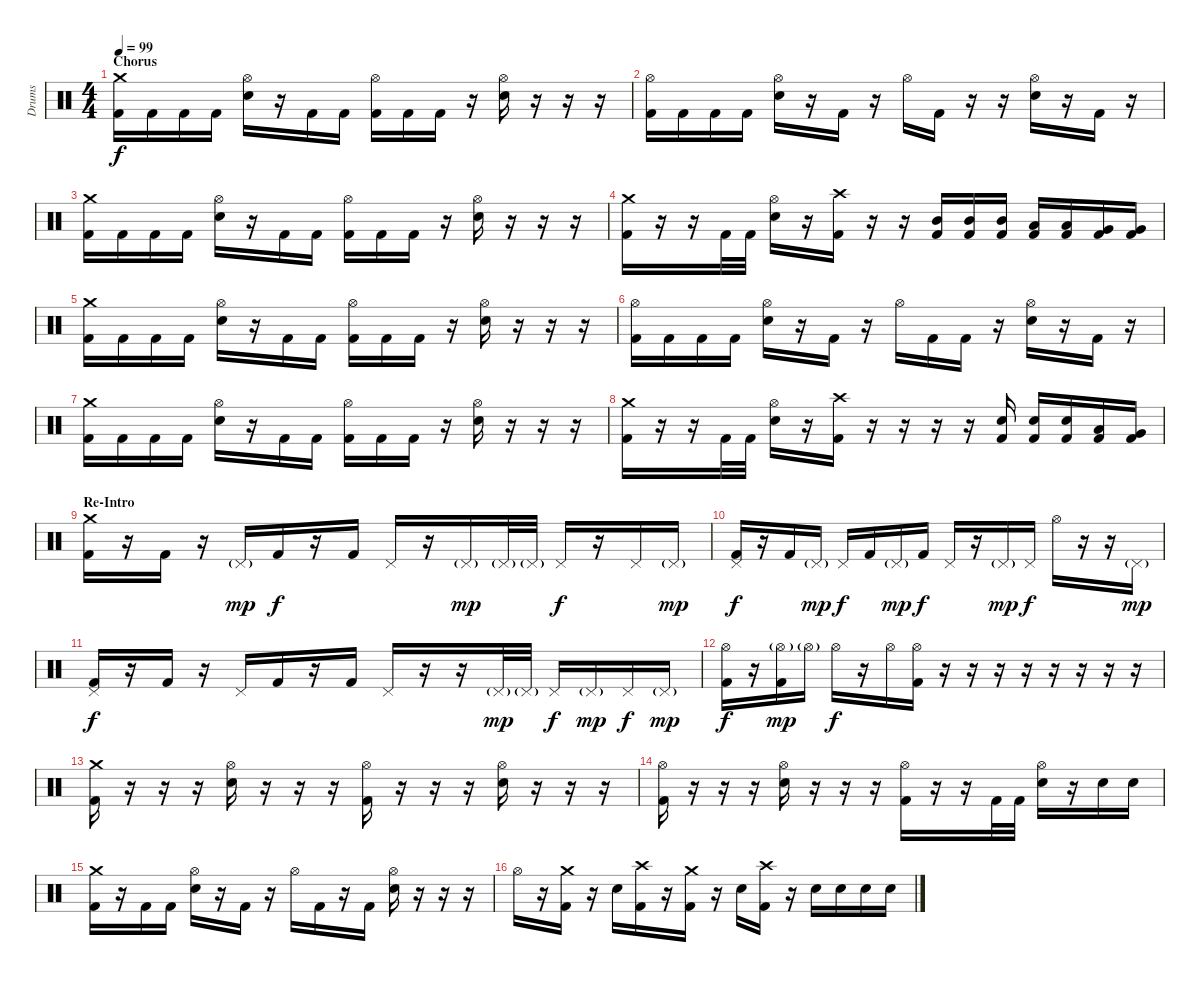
\track ("Drums" "Drums") {instrument percussion}
\staff {score}
\articulation defaults
\ts (4 4)
\section ("" "Chorus")
\tempo 99
\clef neutral
\ks c
("Crash medium (hit)" "Kick (hit) 2").16{dy f} "Kick (hit) 2".16 "Kick (hit) 2".16 "Kick (hit) 2".16 ("Hi-Hat (open)" "Electric Snare (hit)").16 r.16 "Kick (hit) 2".16 "Kick (hit) 2".16 ("Hi-Hat (open)" "Kick (hit) 2").16 "Kick (hit) 2".16 "Kick (hit) 2".16 r.16 ("Hi-Hat (open)" "Electric Snare (hit)").16 r.16 r.16 r.16 |
("Hi-Hat (open)" "Kick (hit) 2").16 "Kick (hit) 2".16 "Kick (hit) 2".16 "Kick (hit) 2".16 ("Hi-Hat (open)" "Electric Snare (hit)").16 r.16 "Kick (hit) 2".16 r.16 "Hi-Hat (open)".16 "Kick (hit) 2".16 r.16 r.16 ("Hi-Hat (open)" "Electric Snare (hit)").16 r.16 "Kick (hit) 2".16 r.16 |
("Crash medium (hit)" "Kick (hit) 2").16 "Kick (hit) 2".16 "Kick (hit) 2".16 "Kick (hit) 2".16 ("Hi-Hat (open)" "Electric Snare (hit)").16 r.16 "Kick (hit) 2".16 "Kick (hit) 2".16 ("Hi-Hat (open)" "Kick (hit) 2").16 "Kick (hit) 2".16 "Kick (hit) 2".16 r.16 ("Hi-Hat (open)" "Electric Snare (hit)").16 r.16 r.16 r.16 |
("Crash medium (hit)" "Kick (hit) 2").16 r.16 r.16 "Kick (hit) 2".32 "Kick (hit) 2".32 ("Hi-Hat (open)" "Electric Snare (hit)").16 r.16 ("Crash high (hit)" "Kick (hit) 2").16 r.16 r.16 ("Mid Tom (hit)" "Kick (hit) 2").16 ("Mid Tom (hit)" "Kick (hit) 2").16 ("Mid Tom (hit)" "Kick (hit) 2").16 ("Low Tom (hit)" "Kick (hit) 2").16 ("Low Tom (hit)" "Kick (hit) 2").16 ("Very Low Tom (hit)" "Kick (hit) 2").16 ("Very Low Tom (hit)" "Kick (hit) 2").16 |
("Crash medium (hit)" "Kick (hit) 2").16 "Kick (hit) 2".16 "Kick (hit) 2".16 "Kick (hit) 2".16 ("Hi-Hat (open)" "Electric Snare (hit)").16 r.16 "Kick (hit) 2".16 "Kick (hit) 2".16 ("Hi-Hat (open)" "Kick (hit) 2").16 "Kick (hit) 2".16 "Kick (hit) 2".16 r.16 ("Hi-Hat (open)" "Electric Snare (hit)").16 r.16 r.16 r.16 |
("Hi-Hat (open)" "Kick (hit) 2").16 "Kick (hit) 2".16 "Kick (hit) 2".16 "Kick (hit) 2".16 ("Hi-Hat (open)" "Electric Snare (hit)").16 r.16 "Kick (hit) 2".16 r.16 "Hi-Hat (open)".16 "Kick (hit) 2".16 "Kick (hit) 2".16 r.16 ("Hi-Hat (open)" "Electric Snare (hit)").16 r.16 "Kick (hit) 2".16 r.16 |
("Crash medium (hit)" "Kick (hit) 2").16 "Kick (hit) 2".16 "Kick (hit) 2".16 "Kick (hit) 2".16 ("Hi-Hat (open)" "Electric Snare (hit)").16 r.16 "Kick (hit) 2".16 "Kick (hit) 2".16 ("Hi-Hat (open)" "Kick (hit) 2").16 "Kick (hit) 2".16 "Kick (hit) 2".16 r.16 ("Hi-Hat (open)" "Electric Snare (hit)").16 r.16 r.16 r.16 |
("Crash medium (hit)" "Kick (hit) 2").16 r.16 r.16 "Kick (hit) 2".32 "Kick (hit) 2".32 ("Hi-Hat (open)" "Electric Snare (hit)").16 r.16 ("Crash high (hit)" "Kick (hit) 2").16 r.16 r.16 r.16 r.16 ("Electric Snare (hit)" "Kick (hit) 2").16 ("Electric Snare (hit)" "Kick (hit) 2").16 ("Electric Snare (hit)" "Kick (hit) 2").16 ("Low Tom (hit)" "Kick (hit) 2").16 ("Very Low Tom (hit)" "Kick (hit) 2").16 |
\section ("" "Re-Intro")
("Crash medium (hit)" "Kick (hit) 2").16 r.16 "Kick (hit) 2".16 r.16 "Pedal Hi-Hat (hit)"{g}.16{dy mp} "Kick (hit) 2".16{dy f} r.16 "Kick (hit) 2".16 "Pedal Hi-Hat (hit)".16 r.16 "Pedal Hi-Hat (hit)"{g}.16{dy mp} "Pedal Hi-Hat (hit)"{g}.32 "Pedal Hi-Hat (hit)"{g}.32 "Pedal Hi-Hat (hit)".16{dy f} r.16 "Pedal Hi-Hat (hit)".16 "Pedal Hi-Hat (hit)"{g}.16{dy mp} |
("Pedal Hi-Hat (hit)" "Kick (hit) 2").16{dy f} r.16 "Kick (hit) 2".16 "Pedal Hi-Hat (hit)"{g}.16{dy mp} "Pedal Hi-Hat (hit)".16{dy f} "Kick (hit) 2".16 "Pedal Hi-Hat (hit)"{g}.16{dy mp} "Kick (hit) 2".16{dy f} "Pedal Hi-Hat (hit)".16 r.16 "Pedal Hi-Hat (hit)"{g}.16{dy mp} "Pedal Hi-Hat (hit)".16{dy f} "Hi-Hat (open)".16 r.16 r.16 "Pedal Hi-Hat (hit)"{g}.16{dy mp} |
("Pedal Hi-Hat (hit)" "Kick (hit) 2").16{dy f} r.16 "Kick (hit) 2".16 r.16 "Pedal Hi-Hat (hit)".16 "Kick (hit) 2".16 r.16 "Kick (hit) 2".16 "Pedal Hi-Hat (hit)".16 r.16 r.16 "Pedal Hi-Hat (hit)"{g}.32{dy mp} "Pedal Hi-Hat (hit)"{g}.32 "Pedal Hi-Hat (hit)".16{dy f} "Pedal Hi-Hat (hit)"{g}.16{dy mp} "Pedal Hi-Hat (hit)".16{dy f} "Pedal Hi-Hat (hit)"{g}.16{dy mp} |
("Hi-Hat (open)" "Kick (hit) 2").16{dy f} r.16 ("Hi-Hat (open)"{g} "Kick (hit) 2").16{dy mp} "Hi-Hat (open)"{g}.16 "Hi-Hat (open)".16{dy f} r.16 "Hi-Hat (open)".16 ("Hi-Hat (open)" "Kick (hit) 2").16 r.16{volume 0} r.16 r.16 r.16 r.16 r.16 r.16 r.16 |
\section ("" "")
("Crash medium (hit)" "Kick (hit) 2").16{volume 16} r.16 r.16 r.16 ("Hi-Hat (open)" "Electric Snare (hit)").16 r.16 r.16 r.16 ("Hi-Hat (open)" "Kick (hit) 2").16 r.16 r.16 r.16 ("Hi-Hat (open)" "Electric Snare (hit)").16 r.16 r.16 r.16 |
("Hi-Hat (open)" "Kick (hit) 2").16 r.16 r.16 r.16 ("Hi-Hat (open)" "Electric Snare (hit)").16 r.16 r.16 r.16 ("Hi-Hat (open)" "Kick (hit) 2").16 r.16 r.16 "Kick (hit) 2".32 "Kick (hit) 2".32 ("Hi-Hat (open)" "Electric Snare (hit)").16 r.16 "Electric Snare (hit)".16 "Electric Snare (hit)".16 |
("Crash medium (hit)" "Kick (hit) 2").16 r.16 "Kick (hit) 2".16 "Kick (hit) 2".16 ("Hi-Hat (open)" "Electric Snare (hit)").16 r.16 "Kick (hit) 2".16 r.16 "Hi-Hat (open)".16 "Kick (hit) 2".16 r.16 "Kick (hit) 2".16 ("Hi-Hat (open)" "Electric Snare (hit)").16 r.16 r.16 r.16 |
"Hi-Hat (open)".16 r.16 ("Crash medium (hit)" "Kick (hit) 2").16 r.16 "Electric Snare (hit)".16 ("Crash high (hit)" "Kick (hit) 2").16 r.16 ("Crash medium (hit)" "Kick (hit) 2").16 r.16 "Electric Snare (hit)".16 ("Crash high (hit)" "Kick (hit) 2").16 r.16 "Electric Snare (hit)".16 "Electric Snare (hit)".16 "Electric Snare (hit)".16 "Electric Snare (hit)".16
